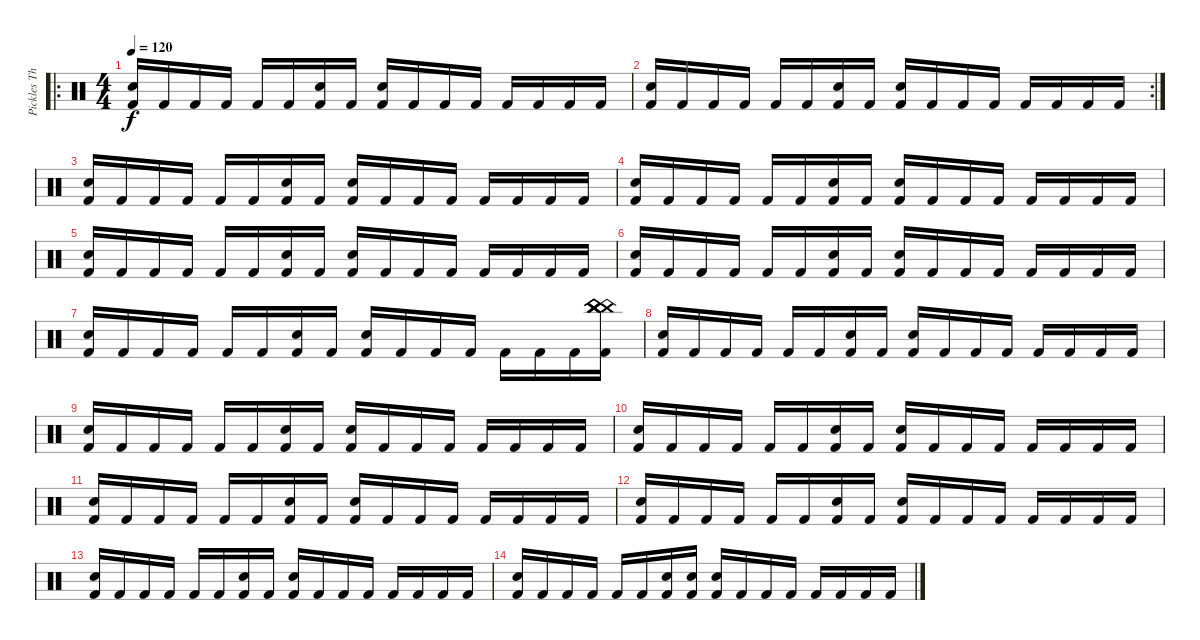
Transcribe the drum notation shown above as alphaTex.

\track ("Pickles The Drummer" "Pickles Th") {instrument percussion}
\staff {score}
\articulation defaults
\ro
\ts (4 4)
\tempo 120
\clef neutral
\ks c
("Electric Snare (hit)" "Kick (hit) 2").16{dy f} "Kick (hit) 2".16 "Kick (hit) 2".16 "Kick (hit) 2".16 "Kick (hit) 2".16 "Kick (hit) 2".16 ("Electric Snare (hit)" "Kick (hit) 2").16 "Kick (hit) 2".16 ("Snare (hit) 2" "Kick (hit) 2").16 "Kick (hit) 2".16 "Kick (hit) 2".16 "Kick (hit) 2".16 "Kick (hit) 2".16 "Kick (hit) 2".16 "Kick (hit) 2".16 "Kick (hit) 2".16 |
\rc 2
("Electric Snare (hit)" "Kick (hit) 2").16 "Kick (hit) 2".16 "Kick (hit) 2".16 "Kick (hit) 2".16 "Kick (hit) 2".16 "Kick (hit) 2".16 ("Electric Snare (hit)" "Kick (hit) 2").16 "Kick (hit) 2".16 ("Snare (hit) 2" "Kick (hit) 2").16 "Kick (hit) 2".16 "Kick (hit) 2".16 "Kick (hit) 2".16 "Kick (hit) 2".16 "Kick (hit) 2".16 "Kick (hit) 2".16 "Kick (hit) 2".16 |
("Electric Snare (hit)" "Kick (hit) 2").16 "Kick (hit) 2".16 "Kick (hit) 2".16 "Kick (hit) 2".16 "Kick (hit) 2".16 "Kick (hit) 2".16 ("Electric Snare (hit)" "Kick (hit) 2").16 "Kick (hit) 2".16 ("Snare (hit) 2" "Kick (hit) 2").16 "Kick (hit) 2".16 "Kick (hit) 2".16 "Kick (hit) 2".16 "Kick (hit) 2".16 "Kick (hit) 2".16 "Kick (hit) 2".16 "Kick (hit) 2".16 |
("Electric Snare (hit)" "Kick (hit) 2").16 "Kick (hit) 2".16 "Kick (hit) 2".16 "Kick (hit) 2".16 "Kick (hit) 2".16 "Kick (hit) 2".16 ("Electric Snare (hit)" "Kick (hit) 2").16 "Kick (hit) 2".16 ("Snare (hit) 2" "Kick (hit) 2").16 "Kick (hit) 2".16 "Kick (hit) 2".16 "Kick (hit) 2".16 "Kick (hit) 2".16 "Kick (hit) 2".16 "Kick (hit) 2".16 "Kick (hit) 2".16 |
("Electric Snare (hit)" "Kick (hit) 2").16 "Kick (hit) 2".16 "Kick (hit) 2".16 "Kick (hit) 2".16 "Kick (hit) 2".16 "Kick (hit) 2".16 ("Electric Snare (hit)" "Kick (hit) 2").16 "Kick (hit) 2".16 ("Snare (hit) 2" "Kick (hit) 2").16 "Kick (hit) 2".16 "Kick (hit) 2".16 "Kick (hit) 2".16 "Kick (hit) 2".16 "Kick (hit) 2".16 "Kick (hit) 2".16 "Kick (hit) 2".16 |
("Electric Snare (hit)" "Kick (hit) 2").16 "Kick (hit) 2".16 "Kick (hit) 2".16 "Kick (hit) 2".16 "Kick (hit) 2".16 "Kick (hit) 2".16 ("Electric Snare (hit)" "Kick (hit) 2").16 "Kick (hit) 2".16 ("Snare (hit) 2" "Kick (hit) 2").16 "Kick (hit) 2".16 "Kick (hit) 2".16 "Kick (hit) 2".16 "Kick (hit) 2".16 "Kick (hit) 2".16 "Kick (hit) 2".16 "Kick (hit) 2".16 |
("Electric Snare (hit)" "Kick (hit) 2").16 "Kick (hit) 2".16 "Kick (hit) 2".16 "Kick (hit) 2".16 "Kick (hit) 2".16 "Kick (hit) 2".16 ("Electric Snare (hit)" "Kick (hit) 2").16 "Kick (hit) 2".16 ("Snare (hit) 2" "Kick (hit) 2").16 "Kick (hit) 2".16 "Kick (hit) 2".16 "Kick (hit) 2".16 "Kick (hit) 2".16 "Kick (hit) 2".16 "Kick (hit) 2".16 ("China (hit)" "China (hit)" "China (hit)" "China (hit)" "China (hit)" "Kick (hit) 2").16 |
("Electric Snare (hit)" "Kick (hit) 2").16 "Kick (hit) 2".16 "Kick (hit) 2".16 "Kick (hit) 2".16 "Kick (hit) 2".16 "Kick (hit) 2".16 ("Electric Snare (hit)" "Kick (hit) 2").16 "Kick (hit) 2".16 ("Snare (hit) 2" "Kick (hit) 2").16 "Kick (hit) 2".16 "Kick (hit) 2".16 "Kick (hit) 2".16 "Kick (hit) 2".16 "Kick (hit) 2".16 "Kick (hit) 2".16 "Kick (hit) 2".16 |
("Electric Snare (hit)" "Kick (hit) 2").16 "Kick (hit) 2".16 "Kick (hit) 2".16 "Kick (hit) 2".16 "Kick (hit) 2".16 "Kick (hit) 2".16 ("Electric Snare (hit)" "Kick (hit) 2").16 "Kick (hit) 2".16 ("Snare (hit) 2" "Kick (hit) 2").16 "Kick (hit) 2".16 "Kick (hit) 2".16 "Kick (hit) 2".16 "Kick (hit) 2".16 "Kick (hit) 2".16 "Kick (hit) 2".16 "Kick (hit) 2".16 |
("Electric Snare (hit)" "Kick (hit) 2").16 "Kick (hit) 2".16 "Kick (hit) 2".16 "Kick (hit) 2".16 "Kick (hit) 2".16 "Kick (hit) 2".16 ("Electric Snare (hit)" "Kick (hit) 2").16 "Kick (hit) 2".16 ("Snare (hit) 2" "Kick (hit) 2").16 "Kick (hit) 2".16 "Kick (hit) 2".16 "Kick (hit) 2".16 "Kick (hit) 2".16 "Kick (hit) 2".16 "Kick (hit) 2".16 "Kick (hit) 2".16 |
("Electric Snare (hit)" "Kick (hit) 2").16 "Kick (hit) 2".16 "Kick (hit) 2".16 "Kick (hit) 2".16 "Kick (hit) 2".16 "Kick (hit) 2".16 ("Electric Snare (hit)" "Kick (hit) 2").16 "Kick (hit) 2".16 ("Snare (hit) 2" "Kick (hit) 2").16 "Kick (hit) 2".16 "Kick (hit) 2".16 "Kick (hit) 2".16 "Kick (hit) 2".16 "Kick (hit) 2".16 "Kick (hit) 2".16 "Kick (hit) 2".16 |
("Electric Snare (hit)" "Kick (hit) 2").16 "Kick (hit) 2".16 "Kick (hit) 2".16 "Kick (hit) 2".16 "Kick (hit) 2".16 "Kick (hit) 2".16 ("Electric Snare (hit)" "Kick (hit) 2").16 "Kick (hit) 2".16 ("Snare (hit) 2" "Kick (hit) 2").16 "Kick (hit) 2".16 "Kick (hit) 2".16 "Kick (hit) 2".16 "Kick (hit) 2".16 "Kick (hit) 2".16 "Kick (hit) 2".16 "Kick (hit) 2".16 |
("Electric Snare (hit)" "Kick (hit) 2").16 "Kick (hit) 2".16 "Kick (hit) 2".16 "Kick (hit) 2".16 "Kick (hit) 2".16 "Kick (hit) 2".16 ("Electric Snare (hit)" "Kick (hit) 2").16 "Kick (hit) 2".16 ("Snare (hit) 2" "Kick (hit) 2").16 "Kick (hit) 2".16 "Kick (hit) 2".16 "Kick (hit) 2".16 "Kick (hit) 2".16 "Kick (hit) 2".16 "Kick (hit) 2".16 "Kick (hit) 2".16 |
("Electric Snare (hit)" "Kick (hit) 2").16 "Kick (hit) 2".16 "Kick (hit) 2".16 "Kick (hit) 2".16 "Kick (hit) 2".16 "Kick (hit) 2".16 ("Electric Snare (hit)" "Kick (hit) 2").16 ("Electric Snare (hit)" "Kick (hit) 2").16 ("Snare (hit) 2" "Kick (hit) 2").16 "Kick (hit) 2".16 "Kick (hit) 2".16 "Kick (hit) 2".16 "Kick (hit) 2".16 "Kick (hit) 2".16 "Kick (hit) 2".16 "Kick (hit) 2".16
